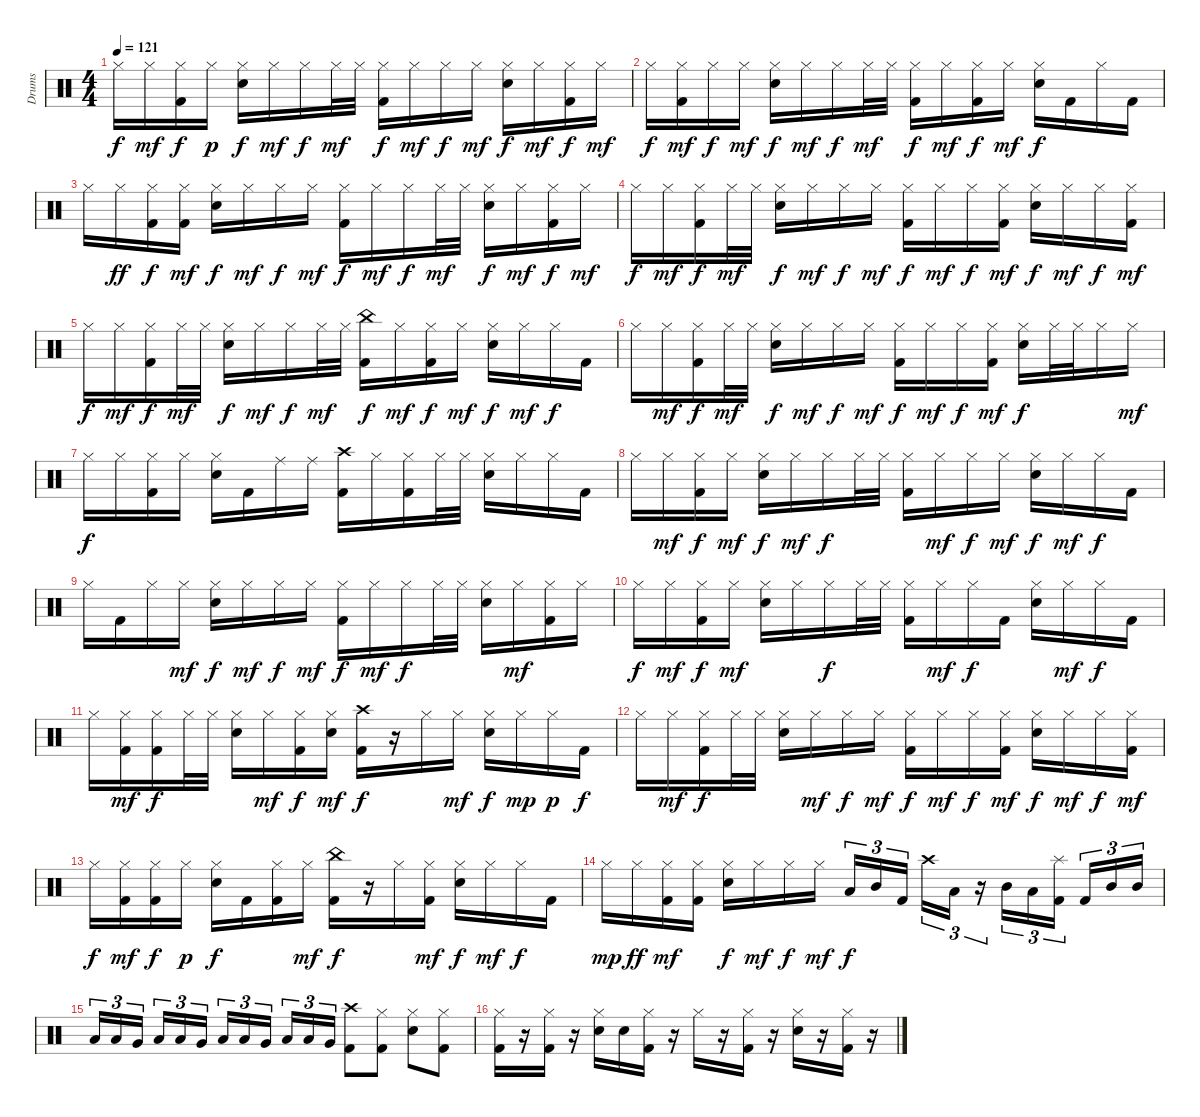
\track ("Drums" "Drums") {instrument percussion}
\staff {score}
\articulation defaults
\ts (4 4)
\tempo 121
\clef neutral
\ks c "Hi-Hat (closed)".16{dy f} "Hi-Hat (closed)".16{dy mf}
("Hi-Hat (closed)" "Kick (hit) 2").16{dy f} "Hi-Hat (closed)".16{dy p} ("Hi-Hat (closed)" "Snare (hit) 2").16{dy f} "Hi-Hat (closed)".16{dy mf} "Hi-Hat (closed)".16{dy f} "Hi-Hat (closed)".32{dy mf} "Hi-Hat (closed)".32 ("Hi-Hat (closed)" "Kick (hit) 2").16{dy f} "Hi-Hat (closed)".16{dy mf} "Hi-Hat (closed)".16{dy f} "Hi-Hat (closed)".16{dy mf} ("Hi-Hat (closed)" "Snare (hit) 2").16{dy f} "Hi-Hat (closed)".16{dy mf} ("Hi-Hat (closed)" "Kick (hit) 2").16{dy f} "Hi-Hat (closed)".16{dy mf} |
"Hi-Hat (closed)".16{dy f} ("Hi-Hat (closed)" "Kick (hit) 2").16{dy mf} "Hi-Hat (closed)".16{dy f} "Hi-Hat (closed)".16{dy mf} ("Hi-Hat (closed)" "Snare (hit) 2").16{dy f} "Hi-Hat (closed)".16{dy mf} "Hi-Hat (closed)".16{dy f} "Hi-Hat (closed)".32{dy mf} "Hi-Hat (closed)".32 ("Hi-Hat (closed)" "Kick (hit) 2").16{dy f} "Hi-Hat (closed)".16{dy mf} ("Hi-Hat (closed)" "Kick (hit) 2").16{dy f} "Hi-Hat (closed)".16{dy mf} ("Hi-Hat (closed)" "Snare (hit) 2").16{dy f} "Kick (hit) 2".16 "Hi-Hat (closed)".16 "Kick (hit) 2".16 |
"Hi-Hat (closed)".16 "Hi-Hat (closed)".16{dy ff} ("Hi-Hat (closed)" "Kick (hit) 2").16{dy f} ("Hi-Hat (closed)" "Kick (hit) 2").16{dy mf} ("Hi-Hat (closed)" "Snare (hit) 2").16{dy f} "Hi-Hat (closed)".16{dy mf} "Hi-Hat (closed)".16{dy f} "Hi-Hat (closed)".16{dy mf} ("Hi-Hat (closed)" "Kick (hit) 2").16{dy f} "Hi-Hat (closed)".16{dy mf} "Hi-Hat (closed)".16{dy f} "Hi-Hat (closed)".32{dy mf} "Hi-Hat (closed)".32 ("Hi-Hat (closed)" "Snare (hit) 2").16{dy f} "Hi-Hat (closed)".16{dy mf} ("Hi-Hat (closed)" "Kick (hit) 2").16{dy f} "Hi-Hat (closed)".16{dy mf} |
"Hi-Hat (closed)".16{dy f} "Hi-Hat (closed)".16{dy mf} ("Hi-Hat (closed)" "Kick (hit) 2").16{dy f} "Hi-Hat (closed)".32{dy mf} "Hi-Hat (closed)".32 ("Hi-Hat (closed)" "Snare (hit) 2").16{dy f} "Hi-Hat (closed)".16{dy mf} "Hi-Hat (closed)".16{dy f} "Hi-Hat (closed)".16{dy mf} ("Hi-Hat (closed)" "Kick (hit) 2").16{dy f} "Hi-Hat (closed)".16{dy mf} "Hi-Hat (closed)".16{dy f} ("Hi-Hat (closed)" "Kick (hit) 2").16{dy mf} ("Hi-Hat (closed)" "Snare (hit) 2").16{dy f} "Hi-Hat (closed)".16{dy mf} "Hi-Hat (closed)".16{dy f} ("Hi-Hat (closed)" "Kick (hit) 2").16{dy mf} |
"Hi-Hat (closed)".16{dy f} "Hi-Hat (closed)".16{dy mf} ("Hi-Hat (closed)" "Kick (hit) 2").16{dy f} "Hi-Hat (closed)".32{dy mf} "Hi-Hat (closed)".32 ("Hi-Hat (closed)" "Snare (hit) 2").16{dy f} "Hi-Hat (closed)".16{dy mf} "Hi-Hat (closed)".16{dy f} "Hi-Hat (closed)".32{dy mf} "Hi-Hat (closed)".32 ("China (hit)" "Kick (hit) 2").16{dy f} "Hi-Hat (closed)".16{dy mf} ("Hi-Hat (closed)" "Kick (hit) 2").16{dy f} "Hi-Hat (closed)".16{dy mf} ("Hi-Hat (closed)" "Snare (hit) 2").16{dy f} "Hi-Hat (closed)".16{dy mf} "Hi-Hat (closed)".16{dy f} "Kick (hit) 2".16 |
"Hi-Hat (closed)".16 "Hi-Hat (closed)".16{dy mf} ("Hi-Hat (closed)" "Kick (hit) 2").16{dy f} "Hi-Hat (closed)".32{dy mf} "Hi-Hat (closed)".32 ("Hi-Hat (closed)" "Snare (hit) 2").16{dy f} "Hi-Hat (closed)".16{dy mf} "Hi-Hat (closed)".16{dy f} "Hi-Hat (closed)".16{dy mf} ("Hi-Hat (closed)" "Kick (hit) 2").16{dy f} "Hi-Hat (closed)".16{dy mf} "Hi-Hat (closed)".16{dy f} ("Hi-Hat (closed)" "Kick (hit) 2").16{dy mf} ("Hi-Hat (closed)" "Snare (hit) 2").16{dy f} "Hi-Hat (closed)".32 "Hi-Hat (closed)".32 "Hi-Hat (closed)".16 "Hi-Hat (closed)".16{dy mf} |
"Hi-Hat (closed)".16{dy f} "Hi-Hat (closed)".16 ("Hi-Hat (closed)" "Kick (hit) 2").16 "Hi-Hat (closed)".16 ("Hi-Hat (closed)" "Snare (hit) 2").16 "Kick (hit) 2".16 "Ride (middle)".16 "Ride (middle)".16 ("Crash high (hit)" "Kick (hit) 2").16 "Hi-Hat (closed)".16 ("Hi-Hat (closed)" "Kick (hit) 2").16 "Hi-Hat (closed)".32 "Hi-Hat (closed)".32 ("Hi-Hat (closed)" "Snare (hit) 2").16 "Hi-Hat (closed)".16 "Hi-Hat (closed)".16 "Kick (hit) 2".16 |
"Hi-Hat (closed)".16 "Hi-Hat (closed)".16{dy mf} ("Hi-Hat (closed)" "Kick (hit) 2").16{dy f} "Hi-Hat (closed)".16{dy mf} ("Hi-Hat (closed)" "Snare (hit) 2").16{dy f} "Hi-Hat (closed)".16{dy mf} "Hi-Hat (closed)".16{dy f} "Hi-Hat (closed)".32 "Hi-Hat (closed)".32 ("Hi-Hat (closed)" "Kick (hit) 2").16 "Hi-Hat (closed)".16{dy mf} "Hi-Hat (closed)".16{dy f} "Hi-Hat (closed)".16{dy mf} ("Hi-Hat (closed)" "Snare (hit) 2").16{dy f} "Hi-Hat (closed)".16{dy mf} "Hi-Hat (closed)".16{dy f} "Kick (hit) 2".16 |
"Hi-Hat (closed)".16 "Kick (hit) 2".16 "Hi-Hat (closed)".16 "Hi-Hat (closed)".16{dy mf} ("Hi-Hat (closed)" "Snare (hit) 2").16{dy f} "Hi-Hat (closed)".16{dy mf} "Hi-Hat (closed)".16{dy f} "Hi-Hat (closed)".16{dy mf} ("Hi-Hat (closed)" "Kick (hit) 2").16{dy f} "Hi-Hat (closed)".16{dy mf} "Hi-Hat (closed)".16{dy f} "Hi-Hat (closed)".32 "Hi-Hat (closed)".32 ("Hi-Hat (closed)" "Snare (hit) 2").16 "Hi-Hat (closed)".16{dy mf} ("Hi-Hat (closed)" "Kick (hit) 2").16 "Hi-Hat (closed)".16 |
"Hi-Hat (closed)".16{dy f} "Hi-Hat (closed)".16{dy mf} ("Hi-Hat (closed)" "Kick (hit) 2").16{dy f} "Hi-Hat (closed)".16{dy mf} ("Hi-Hat (closed)" "Snare (hit) 2").16 "Hi-Hat (closed)".16 "Hi-Hat (closed)".16{dy f} "Hi-Hat (closed)".32 "Hi-Hat (closed)".32 ("Hi-Hat (closed)" "Kick (hit) 2").16 "Hi-Hat (closed)".16{dy mf} "Hi-Hat (closed)".16{dy f} "Kick (hit) 2".16 ("Hi-Hat (closed)" "Snare (hit) 2").16 "Hi-Hat (closed)".16{dy mf} "Hi-Hat (closed)".16{dy f} "Kick (hit) 2".16 |
"Hi-Hat (closed)".16 ("Hi-Hat (closed)" "Kick (hit) 2").16{dy mf} ("Hi-Hat (closed)" "Kick (hit) 2").16{dy f} "Hi-Hat (closed)".32 "Hi-Hat (closed)".32 ("Hi-Hat (closed)" "Snare (hit) 2").16 "Hi-Hat (closed)".16{dy mf} ("Hi-Hat (closed)" "Kick (hit) 2").16{dy f} ("Hi-Hat (closed)" "Snare (hit) 2").16{dy mf} ("Crash high (hit)" "Kick (hit) 2").16{dy f} r.16 "Hi-Hat (closed)".16 "Hi-Hat (closed)".16{dy mf} ("Hi-Hat (closed)" "Snare (hit) 2").16{dy f} "Hi-Hat (closed)".16{dy mp} "Hi-Hat (closed)".16{dy p} "Kick (hit) 2".16{dy f} |
"Hi-Hat (closed)".16 "Hi-Hat (closed)".16{dy mf} ("Hi-Hat (closed)" "Kick (hit) 2").16{dy f} "Hi-Hat (closed)".32 "Hi-Hat (closed)".32 ("Hi-Hat (closed)" "Snare (hit) 2").16 "Hi-Hat (closed)".16{dy mf} "Hi-Hat (closed)".16{dy f} "Hi-Hat (closed)".16{dy mf} ("Hi-Hat (closed)" "Kick (hit) 2").16{dy f} "Hi-Hat (closed)".16{dy mf} "Hi-Hat (closed)".16{dy f} ("Hi-Hat (closed)" "Kick (hit) 2").16{dy mf} ("Hi-Hat (closed)" "Snare (hit) 2").16{dy f} "Hi-Hat (closed)".16{dy mf} "Hi-Hat (closed)".16{dy f} ("Hi-Hat (closed)" "Kick (hit) 2").16{dy mf} |
"Hi-Hat (closed)".16{dy f} ("Hi-Hat (closed)" "Kick (hit) 2").16{dy mf} ("Hi-Hat (closed)" "Kick (hit) 2").16{dy f} "Hi-Hat (closed)".16{dy p} ("Hi-Hat (closed)" "Snare (hit) 2").16{dy f} "Kick (hit) 2".16 ("Hi-Hat (closed)" "Kick (hit) 2").16 "Hi-Hat (closed)".16{dy mf} ("China (hit)" "Kick (hit) 2").16{dy f} r.16 "Hi-Hat (closed)".16 ("Hi-Hat (closed)" "Kick (hit) 2").16{dy mf} ("Hi-Hat (closed)" "Snare (hit) 2").16{dy f} "Hi-Hat (closed)".16{dy mf} "Hi-Hat (closed)".16{dy f} "Kick (hit) 2".16 |
"Hi-Hat (closed)".16{dy mp} "Hi-Hat (closed)".16{dy ff} ("Hi-Hat (closed)" "Kick (hit) 2").16{dy mf} ("Hi-Hat (closed)" "Kick (hit) 2").16 ("Hi-Hat (closed)" "Snare (hit) 2").16{dy f} "Hi-Hat (closed)".16{dy mf} "Hi-Hat (closed)".16{dy f} "Hi-Hat (closed)".16{dy mf} "Low Tom (hit)".16{tu (3 2) dy f} "Mid Tom (hit)".16{tu (3 2)} "Kick (hit) 2".16{tu (3 2) beam splitsecondary} "Crash high (hit)".16{tu (3 2)} "Low Tom (hit)".16{tu (3 2)} r.16{tu (3 2)} "Mid Tom (hit)".16{tu (3 2)} "Low Tom (hit)".16{tu (3 2)} ("Splash (hit)" "Kick (hit) 2").16{tu (3 2) beam splitsecondary} "Kick (hit) 2".16{tu (3 2)} "Mid Tom (hit)".16{tu (3 2)} "Mid Tom (hit)".16{tu (3 2)} |
"Low Tom (hit)".16{tu (3 2)} "Low Tom (hit)".16{tu (3 2)} "Very Low Tom (hit)".16{tu (3 2) beam splitsecondary} "Low Tom (hit)".16{tu (3 2)} "Low Tom (hit)".16{tu (3 2)} "Very Low Tom (hit)".16{tu (3 2)} "Low Tom (hit)".16{tu (3 2)} "Low Tom (hit)".16{tu (3 2)} "Very Low Tom (hit)".16{tu (3 2) beam splitsecondary} "Low Tom (hit)".16{tu (3 2)} "Low Tom (hit)".16{tu (3 2)} "Very Low Tom (hit)".16{tu (3 2)} ("Crash high (hit)" "Kick (hit) 2").8 ("Hi-Hat (closed)" "Kick (hit) 2").8 ("Hi-Hat (closed)" "Snare (hit) 2").8 ("Hi-Hat (closed)" "Kick (hit) 2").8 |
("Hi-Hat (closed)" "Kick (hit) 2").16 r.16 ("Hi-Hat (closed)" "Kick (hit) 2").16 r.16 ("Hi-Hat (closed)" "Snare (hit) 2").16 "Snare (hit) 2".16 ("Hi-Hat (closed)" "Kick (hit) 2").16 r.16 "Hi-Hat (closed)".16 r.16 ("Hi-Hat (closed)" "Kick (hit) 2").16 r.16 ("Hi-Hat (closed)" "Snare (hit) 2").16 r.16 ("Hi-Hat (closed)" "Kick (hit) 2").16 r.16
